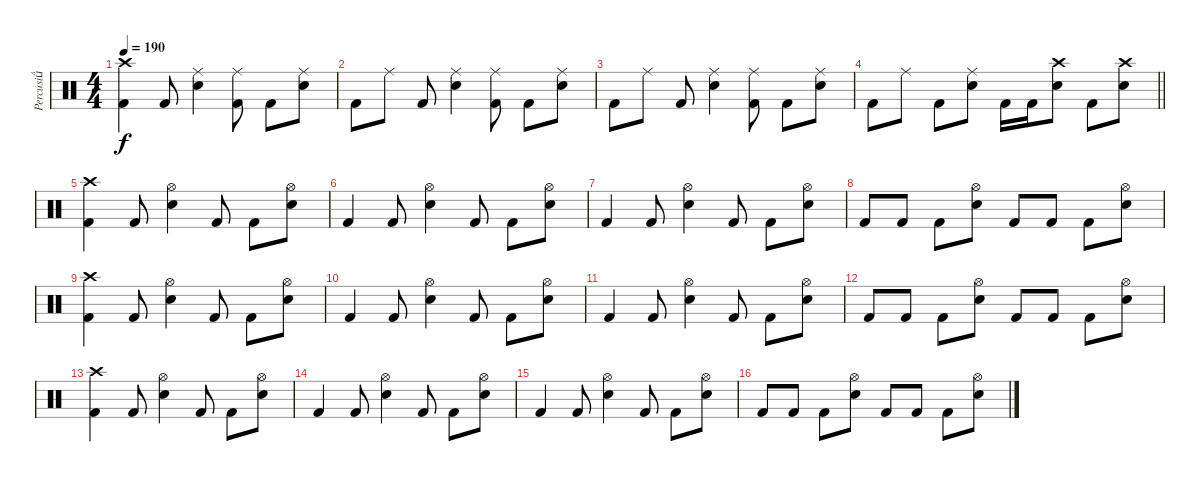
\track ("Percusi" "Percusi") {instrument percussion}
\staff {score}
\articulation defaults
\ts (4 4)
\tempo 190
\clef neutral
\ks c
("Crash high (hit)" "Kick (hit) 2").4{dy f} "Kick (hit) 2".8 ("Ride (middle)" "Electric Snare (hit)").4 ("Ride (middle)" "Kick (hit) 2").8 "Kick (hit) 2".8 ("Ride (middle)" "Electric Snare (hit)").8 |
"Kick (hit) 2".8 "Ride (middle)".8 "Kick (hit) 2".8 ("Ride (middle)" "Electric Snare (hit)").4 ("Ride (middle)" "Kick (hit) 2").8 "Kick (hit) 2".8 ("Ride (middle)" "Electric Snare (hit)").8 |
"Kick (hit) 2".8 "Ride (middle)".8 "Kick (hit) 2".8 ("Ride (middle)" "Electric Snare (hit)").4 ("Ride (middle)" "Kick (hit) 2").8 "Kick (hit) 2".8 ("Ride (middle)" "Electric Snare (hit)").8 |
\barLineRight lightlight "Kick (hit) 2".8 "Ride (middle)".8 "Kick (hit) 2".8
("Ride (middle)" "Electric Snare (hit)").8 "Kick (hit) 2".16 "Kick (hit) 2".16 ("Crash high (hit)" "Electric Snare (hit)").8 "Kick (hit) 2".8 ("Crash high (hit)" "Electric Snare (hit)").8 |
("Crash high (hit)" "Kick (hit) 2").4 "Kick (hit) 2".8 ("Hi-Hat (open)" "Electric Snare (hit)").4 "Kick (hit) 2".8 "Kick (hit) 2".8 ("Hi-Hat (open)" "Electric Snare (hit)").8 |
"Kick (hit) 2".4 "Kick (hit) 2".8 ("Hi-Hat (open)" "Electric Snare (hit)").4 "Kick (hit) 2".8 "Kick (hit) 2".8 ("Hi-Hat (open)" "Electric Snare (hit)").8 |
"Kick (hit) 2".4 "Kick (hit) 2".8 ("Hi-Hat (open)" "Electric Snare (hit)").4 "Kick (hit) 2".8 "Kick (hit) 2".8 ("Hi-Hat (open)" "Electric Snare (hit)").8 |
"Kick (hit) 2".8 "Kick (hit) 2".8 "Kick (hit) 2".8 ("Hi-Hat (open)" "Electric Snare (hit)").8 "Kick (hit) 2".8 "Kick (hit) 2".8 "Kick (hit) 2".8 ("Hi-Hat (open)" "Electric Snare (hit)").8 |
("Crash high (hit)" "Kick (hit) 2").4 "Kick (hit) 2".8 ("Hi-Hat (open)" "Electric Snare (hit)").4 "Kick (hit) 2".8 "Kick (hit) 2".8 ("Hi-Hat (open)" "Electric Snare (hit)").8 |
"Kick (hit) 2".4 "Kick (hit) 2".8 ("Hi-Hat (open)" "Electric Snare (hit)").4 "Kick (hit) 2".8 "Kick (hit) 2".8 ("Hi-Hat (open)" "Electric Snare (hit)").8 |
"Kick (hit) 2".4 "Kick (hit) 2".8 ("Hi-Hat (open)" "Electric Snare (hit)").4 "Kick (hit) 2".8 "Kick (hit) 2".8 ("Hi-Hat (open)" "Electric Snare (hit)").8 |
"Kick (hit) 2".8 "Kick (hit) 2".8 "Kick (hit) 2".8 ("Hi-Hat (open)" "Electric Snare (hit)").8 "Kick (hit) 2".8 "Kick (hit) 2".8 "Kick (hit) 2".8 ("Hi-Hat (open)" "Electric Snare (hit)").8 |
("Crash high (hit)" "Kick (hit) 2").4 "Kick (hit) 2".8 ("Hi-Hat (open)" "Electric Snare (hit)").4 "Kick (hit) 2".8 "Kick (hit) 2".8 ("Hi-Hat (open)" "Electric Snare (hit)").8 |
"Kick (hit) 2".4 "Kick (hit) 2".8 ("Hi-Hat (open)" "Electric Snare (hit)").4 "Kick (hit) 2".8 "Kick (hit) 2".8 ("Hi-Hat (open)" "Electric Snare (hit)").8 |
"Kick (hit) 2".4 "Kick (hit) 2".8 ("Hi-Hat (open)" "Electric Snare (hit)").4 "Kick (hit) 2".8 "Kick (hit) 2".8 ("Hi-Hat (open)" "Electric Snare (hit)").8 |
"Kick (hit) 2".8 "Kick (hit) 2".8 "Kick (hit) 2".8 ("Hi-Hat (open)" "Electric Snare (hit)").8 "Kick (hit) 2".8 "Kick (hit) 2".8 "Kick (hit) 2".8 ("Hi-Hat (open)" "Electric Snare (hit)").8
